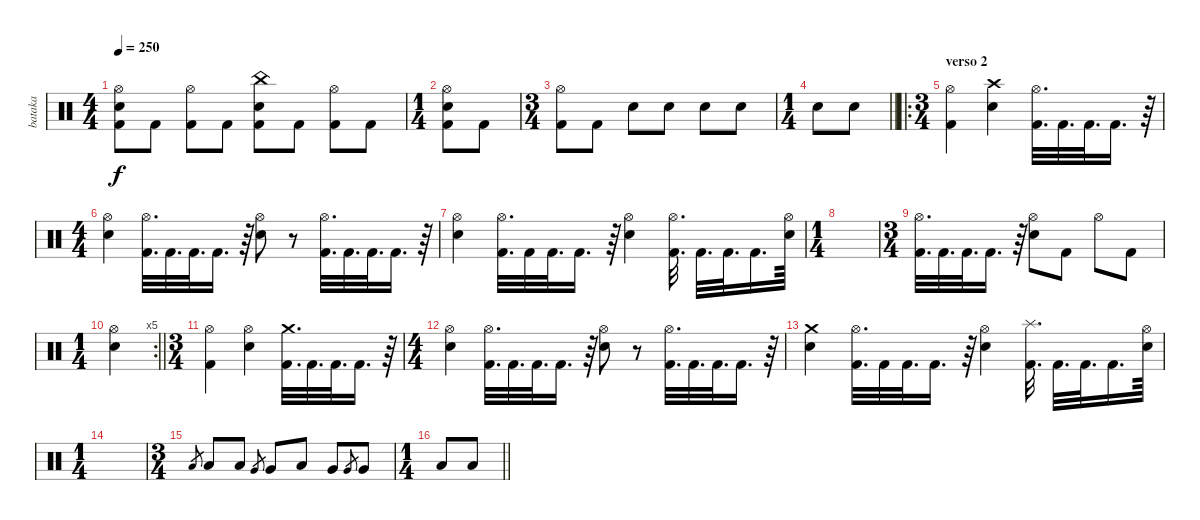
\track ("bataka" "bataka") {instrument percussion}
\staff {score}
\articulation defaults
\ts (4 4)
\tempo 250
\clef neutral
\ks c
("Hi-Hat (open)" "Electric Snare (hit)" "Kick (hit) 2").8{dy f} "Kick (hit) 2".8 ("Hi-Hat (open)" "Kick (hit) 2").8 "Kick (hit) 2".8 ("China (hit)" "Electric Snare (hit)" "Kick (hit) 2").8 "Kick (hit) 2".8 ("Hi-Hat (open)" "Kick (hit) 2").8 "Kick (hit) 2".8 |
\ts (1 4)
("Hi-Hat (open)" "Electric Snare (hit)" "Kick (hit) 2").8 "Kick (hit) 2".8 |
\ts (3 4)
("Hi-Hat (open)" "Kick (hit) 2").8 "Kick (hit) 2".8 "Electric Snare (hit)".8 "Electric Snare (hit)".8 "Electric Snare (hit)".8 "Electric Snare (hit)".8 |
\ts (1 4)
\barLineRight lightlight "Electric Snare (hit)".8 "Electric Snare (hit)".8
|
\ro
\ts (3 4)
\section ("" "verso 2")
("Hi-Hat (open)" "Kick (hit) 2").4 ("Crash high (hit)" "Electric Snare (hit)").4 ("Hi-Hat (open)" "Kick (hit) 2").32{d} "Kick (hit) 2".32{d} "Kick (hit) 2".32{d} "Kick (hit) 2".16{d} r.64 |
\ts (4 4)
("Hi-Hat (open)" "Electric Snare (hit)").4 ("Hi-Hat (open)" "Kick (hit) 2").32{d} "Kick (hit) 2".32{d} "Kick (hit) 2".32{d} "Kick (hit) 2".16{d} r.64 ("Hi-Hat (open)" "Electric Snare (hit)").8 r.8 ("Hi-Hat (open)" "Kick (hit) 2").32{d} "Kick (hit) 2".32{d} "Kick (hit) 2".32{d} "Kick (hit) 2".16{d} r.64 |
("Hi-Hat (open)" "Electric Snare (hit)").4 ("Hi-Hat (open)" "Kick (hit) 2").32{d} "Kick (hit) 2".32 "Kick (hit) 2".32{d} "Kick (hit) 2".16{d} r.64 ("Hi-Hat (open)" "Electric Snare (hit)").4 ("Hi-Hat (open)" "Kick (hit) 2").32{d} "Kick (hit) 2".32{d} "Kick (hit) 2".32{d} "Kick (hit) 2".16{d} ("Hi-Hat (open)" "Electric Snare (hit)").64 |
\ts (1 4)
|
\ts (3 4)
("Hi-Hat (open)" "Kick (hit) 2").32{d} "Kick (hit) 2".32{d} "Kick (hit) 2".32{d} "Kick (hit) 2".16{d} r.64 ("Hi-Hat (open)" "Electric Snare (hit)").8 "Kick (hit) 2".8 "Hi-Hat (open)".8 "Kick (hit) 2".8 |
\rc 5
\ts (1 4)
\barLineRight lightlight
("Hi-Hat (open)" "Electric Snare (hit)").4 |
\ts (3 4)
("Hi-Hat (open)" "Kick (hit) 2").4 ("Hi-Hat (open)" "Electric Snare (hit)").4 ("Crash medium (hit)" "Kick (hit) 2").32{d} "Kick (hit) 2".32{d} "Kick (hit) 2".32{d} "Kick (hit) 2".16{d} r.64 |
\ts (4 4)
("Hi-Hat (open)" "Electric Snare (hit)").4 ("Hi-Hat (open)" "Kick (hit) 2").32{d} "Kick (hit) 2".32{d} "Kick (hit) 2".32{d} "Kick (hit) 2".16{d} r.64 ("Hi-Hat (open)" "Electric Snare (hit)").8 r.8 ("Hi-Hat (open)" "Kick (hit) 2").32{d} "Kick (hit) 2".32{d} "Kick (hit) 2".32{d} "Kick (hit) 2".16{d} r.64 |
("Crash medium (hit)" "Electric Snare (hit)").4 ("Hi-Hat (open)" "Kick (hit) 2").32{d} "Kick (hit) 2".32 "Kick (hit) 2".32{d} "Kick (hit) 2".16{d} r.64 ("Hi-Hat (open)" "Electric Snare (hit)").4 ("Splash (hit)" "Kick (hit) 2").32{d} "Kick (hit) 2".32{d} "Kick (hit) 2".32{d} "Kick (hit) 2".16{d} ("Hi-Hat (open)" "Electric Snare (hit)").64 |
\ts (1 4)
|
\ts (3 4)
"Low Tom (hit)".8{gr} "Low Tom (hit)".8 "Low Tom (hit)".8 "Very Low Tom (hit)".8{gr} "Very Low Tom (hit)".8 "Low Tom (hit)".8 "Very Low Tom (hit)".8 "Very Low Tom (hit)".8{gr} "Very Low Tom (hit)".8 |
\ts (1 4)
\barLineRight lightlight "Low Floor Tom (hit)".8 "Low Floor Tom (hit)".8
